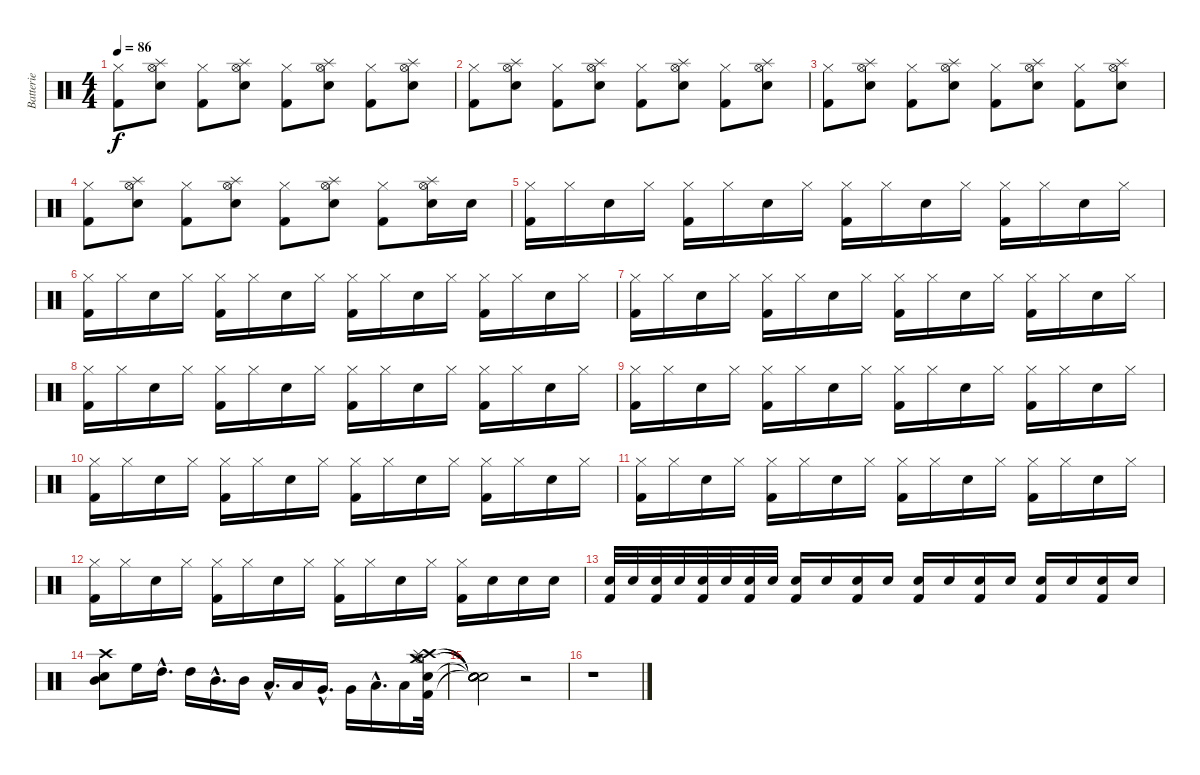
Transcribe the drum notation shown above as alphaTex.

\track ("Batterie" "Batterie") {instrument percussion}
\staff {score}
\articulation defaults
\ts (4 4)
\tempo 86
\clef neutral
\ks c
("Hi-Hat (closed)" "Kick (hit) 2").8{dy f} ("Hi-Hat (open)" "Splash (hit)" "Snare (hit) 2").8 ("Hi-Hat (closed)" "Kick (hit) 2").8 ("Hi-Hat (open)" "Splash (hit)" "Snare (hit) 2").8 ("Hi-Hat (closed)" "Kick (hit) 2").8 ("Hi-Hat (open)" "Splash (hit)" "Snare (hit) 2").8 ("Hi-Hat (closed)" "Kick (hit) 2").8 ("Hi-Hat (open)" "Splash (hit)" "Snare (hit) 2").8 |
("Hi-Hat (closed)" "Kick (hit) 2").8 ("Hi-Hat (open)" "Splash (hit)" "Snare (hit) 2").8 ("Hi-Hat (closed)" "Kick (hit) 2").8 ("Hi-Hat (open)" "Splash (hit)" "Snare (hit) 2").8 ("Hi-Hat (closed)" "Kick (hit) 2").8 ("Hi-Hat (open)" "Splash (hit)" "Snare (hit) 2").8 ("Hi-Hat (closed)" "Kick (hit) 2").8 ("Hi-Hat (open)" "Splash (hit)" "Snare (hit) 2").8 |
("Hi-Hat (closed)" "Kick (hit) 2").8 ("Hi-Hat (open)" "Splash (hit)" "Snare (hit) 2").8 ("Hi-Hat (closed)" "Kick (hit) 2").8 ("Hi-Hat (open)" "Splash (hit)" "Snare (hit) 2").8 ("Hi-Hat (closed)" "Kick (hit) 2").8 ("Hi-Hat (open)" "Splash (hit)" "Snare (hit) 2").8 ("Hi-Hat (closed)" "Kick (hit) 2").8 ("Hi-Hat (open)" "Splash (hit)" "Snare (hit) 2").8 |
("Hi-Hat (closed)" "Kick (hit) 2").8 ("Hi-Hat (open)" "Splash (hit)" "Snare (hit) 2").8 ("Hi-Hat (closed)" "Kick (hit) 2").8 ("Hi-Hat (open)" "Splash (hit)" "Snare (hit) 2").8 ("Hi-Hat (closed)" "Kick (hit) 2").8 ("Hi-Hat (open)" "Splash (hit)" "Snare (hit) 2").8 ("Hi-Hat (closed)" "Kick (hit) 2").8 ("Hi-Hat (open)" "Splash (hit)" "Snare (hit) 2").16 "Snare (hit) 2".16 |
("Hi-Hat (closed)" "Kick (hit) 2").16 "Hi-Hat (closed)".16 "Snare (hit) 2".16 "Hi-Hat (closed)".16 ("Hi-Hat (closed)" "Kick (hit) 2").16 "Hi-Hat (closed)".16 "Snare (hit) 2".16 "Hi-Hat (closed)".16 ("Hi-Hat (closed)" "Kick (hit) 2").16 "Hi-Hat (closed)".16 "Snare (hit) 2".16 "Hi-Hat (closed)".16 ("Hi-Hat (closed)" "Kick (hit) 2").16 "Hi-Hat (closed)".16 "Snare (hit) 2".16 "Hi-Hat (closed)".16 |
("Hi-Hat (closed)" "Kick (hit) 2").16 "Hi-Hat (closed)".16 "Snare (hit) 2".16 "Hi-Hat (closed)".16 ("Hi-Hat (closed)" "Kick (hit) 2").16 "Hi-Hat (closed)".16 "Snare (hit) 2".16 "Hi-Hat (closed)".16 ("Hi-Hat (closed)" "Kick (hit) 2").16 "Hi-Hat (closed)".16 "Snare (hit) 2".16 "Hi-Hat (closed)".16 ("Hi-Hat (closed)" "Kick (hit) 2").16 "Hi-Hat (closed)".16 "Snare (hit) 2".16 "Hi-Hat (closed)".16 |
("Hi-Hat (closed)" "Kick (hit) 2").16 "Hi-Hat (closed)".16 "Snare (hit) 2".16 "Hi-Hat (closed)".16 ("Hi-Hat (closed)" "Kick (hit) 2").16 "Hi-Hat (closed)".16 "Snare (hit) 2".16 "Hi-Hat (closed)".16 ("Hi-Hat (closed)" "Kick (hit) 2").16 "Hi-Hat (closed)".16 "Snare (hit) 2".16 "Hi-Hat (closed)".16 ("Hi-Hat (closed)" "Kick (hit) 2").16 "Hi-Hat (closed)".16 "Snare (hit) 2".16 "Hi-Hat (closed)".16 |
("Hi-Hat (closed)" "Kick (hit) 2").16 "Hi-Hat (closed)".16 "Snare (hit) 2".16 "Hi-Hat (closed)".16 ("Hi-Hat (closed)" "Kick (hit) 2").16 "Hi-Hat (closed)".16 "Snare (hit) 2".16 "Hi-Hat (closed)".16 ("Hi-Hat (closed)" "Kick (hit) 2").16 "Hi-Hat (closed)".16 "Snare (hit) 2".16 "Hi-Hat (closed)".16 ("Hi-Hat (closed)" "Kick (hit) 2").16 "Hi-Hat (closed)".16 "Snare (hit) 2".16 "Hi-Hat (closed)".16 |
("Hi-Hat (closed)" "Kick (hit) 2").16 "Hi-Hat (closed)".16 "Snare (hit) 2".16 "Hi-Hat (closed)".16 ("Hi-Hat (closed)" "Kick (hit) 2").16 "Hi-Hat (closed)".16 "Snare (hit) 2".16 "Hi-Hat (closed)".16 ("Hi-Hat (closed)" "Kick (hit) 2").16 "Hi-Hat (closed)".16 "Snare (hit) 2".16 "Hi-Hat (closed)".16 ("Hi-Hat (closed)" "Kick (hit) 2").16 "Hi-Hat (closed)".16 "Snare (hit) 2".16 "Hi-Hat (closed)".16 |
("Hi-Hat (closed)" "Kick (hit) 2").16 "Hi-Hat (closed)".16 "Snare (hit) 2".16 "Hi-Hat (closed)".16 ("Hi-Hat (closed)" "Kick (hit) 2").16 "Hi-Hat (closed)".16 "Snare (hit) 2".16 "Hi-Hat (closed)".16 ("Hi-Hat (closed)" "Kick (hit) 2").16 "Hi-Hat (closed)".16 "Snare (hit) 2".16 "Hi-Hat (closed)".16 ("Hi-Hat (closed)" "Kick (hit) 2").16 "Hi-Hat (closed)".16 "Snare (hit) 2".16 "Hi-Hat (closed)".16 |
("Hi-Hat (closed)" "Kick (hit) 2").16 "Hi-Hat (closed)".16 "Snare (hit) 2".16 "Hi-Hat (closed)".16 ("Hi-Hat (closed)" "Kick (hit) 2").16 "Hi-Hat (closed)".16 "Snare (hit) 2".16 "Hi-Hat (closed)".16 ("Hi-Hat (closed)" "Kick (hit) 2").16 "Hi-Hat (closed)".16 "Snare (hit) 2".16 "Hi-Hat (closed)".16 ("Hi-Hat (closed)" "Kick (hit) 2").16 "Hi-Hat (closed)".16 "Snare (hit) 2".16 "Hi-Hat (closed)".16 |
("Hi-Hat (closed)" "Kick (hit) 2").16 "Hi-Hat (closed)".16 "Snare (hit) 2".16 "Hi-Hat (closed)".16 ("Hi-Hat (closed)" "Kick (hit) 2").16 "Hi-Hat (closed)".16 "Snare (hit) 2".16 "Hi-Hat (closed)".16 ("Hi-Hat (closed)" "Kick (hit) 2").16 "Hi-Hat (closed)".16 "Snare (hit) 2".16 "Hi-Hat (closed)".16 ("Hi-Hat (closed)" "Kick (hit) 2").16 "Snare (hit) 2".16 "Snare (hit) 2".16 "Snare (hit) 2".16 |
("Snare (hit) 2" "Kick (hit) 2").32 "Snare (hit) 2".32 ("Snare (hit) 2" "Kick (hit) 2").32 "Snare (hit) 2".32 ("Snare (hit) 2" "Kick (hit) 2").32 "Snare (hit) 2".32 ("Snare (hit) 2" "Kick (hit) 2").32 "Snare (hit) 2".32 ("Snare (hit) 2" "Kick (hit) 2").16 "Snare (hit) 2".16 ("Snare (hit) 2" "Kick (hit) 2").16 "Snare (hit) 2".16 ("Snare (hit) 2" "Kick (hit) 2").16 "Snare (hit) 2".16 ("Snare (hit) 2" "Kick (hit) 2").16 "Snare (hit) 2".16 ("Snare (hit) 2" "Kick (hit) 2").16 "Snare (hit) 2".16 ("Snare (hit) 2" "Kick (hit) 2").16 "Snare (hit) 2".16 |
("Mid Tom (hit)" "Crash high (hit)" "Snare (hit) 2").8 "High Floor Tom (hit)".16 "High Tom (hit)"{hac}.16{d} "High Tom (hit)".16 "Mid Tom (hit)"{hac}.16{d} "Mid Tom (hit)".16 "Low Tom (hit)"{hac}.16{d} "Low Tom (hit)".16 "Very Low Tom (hit)"{hac}.16{d} "Very Low Tom (hit)".16 "Low Floor Tom (hit)"{hac}.16{d} "Low Floor Tom (hit)".16 ("Crash high (hit)" "Crash medium (hit)" "Snare (hit) 2" "Kick (hit) 2" "Hi-Hat (open)" "Splash (hit)").32 |
("Snare (hit)"{t} "Snare (hit)"{t} "Snare (hit)"{t} "Snare (hit)"{t} "Snare (hit)"{t} "Snare (hit)"{t}).2 r.2 |
r.1
